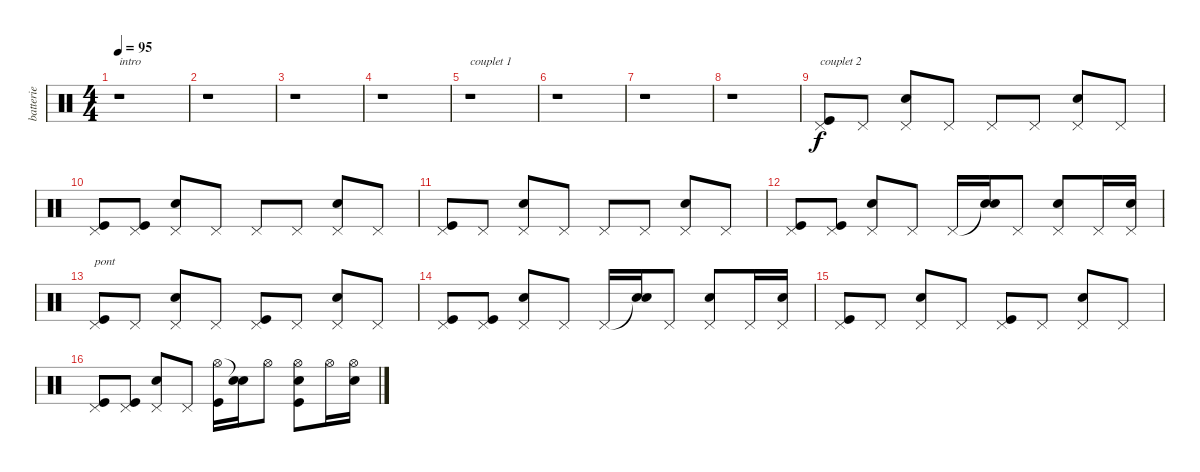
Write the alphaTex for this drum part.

\track ("batterie" "batterie") {instrument percussion}
\staff {score}
\articulation defaults
\ts (4 4)
\tempo 95
\clef neutral
\ks c
r.1{txt "intro" dy f} |
r.1 |
r.1 |
r.1 |
r.1{txt "couplet 1"} |
r.1 |
r.1 |
r.1 |
("Pedal Hi-Hat (hit)" "Kick (hit)").8{txt "couplet 2"} "Pedal Hi-Hat (hit)".8 ("Pedal Hi-Hat (hit)" "Electric Snare (hit)").8 "Pedal Hi-Hat (hit)".8 "Pedal Hi-Hat (hit)".8 "Pedal Hi-Hat (hit)".8 ("Pedal Hi-Hat (hit)" "Electric Snare (hit)").8 "Pedal Hi-Hat (hit)".8 |
("Pedal Hi-Hat (hit)" "Kick (hit)").8 ("Pedal Hi-Hat (hit)" "Kick (hit)").8 ("Pedal Hi-Hat (hit)" "Electric Snare (hit)").8 "Pedal Hi-Hat (hit)".8 "Pedal Hi-Hat (hit)".8 "Pedal Hi-Hat (hit)".8 ("Pedal Hi-Hat (hit)" "Electric Snare (hit)").8 "Pedal Hi-Hat (hit)".8 |
("Pedal Hi-Hat (hit)" "Kick (hit)").8 "Pedal Hi-Hat (hit)".8 ("Pedal Hi-Hat (hit)" "Electric Snare (hit)").8 "Pedal Hi-Hat (hit)".8 "Pedal Hi-Hat (hit)".8 "Pedal Hi-Hat (hit)".8 ("Pedal Hi-Hat (hit)" "Electric Snare (hit)").8 "Pedal Hi-Hat (hit)".8 |
("Pedal Hi-Hat (hit)" "Kick (hit)").8 ("Pedal Hi-Hat (hit)" "Kick (hit)").8 ("Pedal Hi-Hat (hit)" "Electric Snare (hit)").8 "Pedal Hi-Hat (hit)".8 "Pedal Hi-Hat (hit)".16 ("Snare (hit)"{t} "Electric Snare (hit)").16 "Pedal Hi-Hat (hit)".8 ("Pedal Hi-Hat (hit)" "Electric Snare (hit)").8 "Pedal Hi-Hat (hit)".16 ("Pedal Hi-Hat (hit)" "Electric Snare (hit)").16 |
("Pedal Hi-Hat (hit)" "Kick (hit)").8{txt "pont"} "Pedal Hi-Hat (hit)".8 ("Pedal Hi-Hat (hit)" "Electric Snare (hit)").8 "Pedal Hi-Hat (hit)".8 ("Pedal Hi-Hat (hit)" "Kick (hit)").8 "Pedal Hi-Hat (hit)".8 ("Pedal Hi-Hat (hit)" "Electric Snare (hit)").8 "Pedal Hi-Hat (hit)".8 |
("Pedal Hi-Hat (hit)" "Kick (hit)").8 ("Pedal Hi-Hat (hit)" "Kick (hit)").8 ("Pedal Hi-Hat (hit)" "Electric Snare (hit)").8 "Pedal Hi-Hat (hit)".8 "Pedal Hi-Hat (hit)".16 ("Snare (hit)"{t} "Electric Snare (hit)").16 "Pedal Hi-Hat (hit)".8 ("Pedal Hi-Hat (hit)" "Electric Snare (hit)").8 "Pedal Hi-Hat (hit)".16 ("Pedal Hi-Hat (hit)" "Electric Snare (hit)").16 |
("Pedal Hi-Hat (hit)" "Kick (hit)").8 "Pedal Hi-Hat (hit)".8 ("Pedal Hi-Hat (hit)" "Electric Snare (hit)").8 "Pedal Hi-Hat (hit)".8 ("Pedal Hi-Hat (hit)" "Kick (hit)").8 "Pedal Hi-Hat (hit)".8 ("Pedal Hi-Hat (hit)" "Electric Snare (hit)").8 "Pedal Hi-Hat (hit)".8 |
("Pedal Hi-Hat (hit)" "Kick (hit)").8 ("Pedal Hi-Hat (hit)" "Kick (hit)").8 ("Pedal Hi-Hat (hit)" "Electric Snare (hit)").8 "Pedal Hi-Hat (hit)".8 ("Hi-Hat (open)" "Kick (hit)").16 ("Snare (hit)"{t} "Snare (hit) 2").16 "Hi-Hat (open)".8 ("Hi-Hat (open)" "Snare (hit) 2" "Kick (hit)").8 "Hi-Hat (open)".16 ("Hi-Hat (open)" "Snare (hit) 2").16
